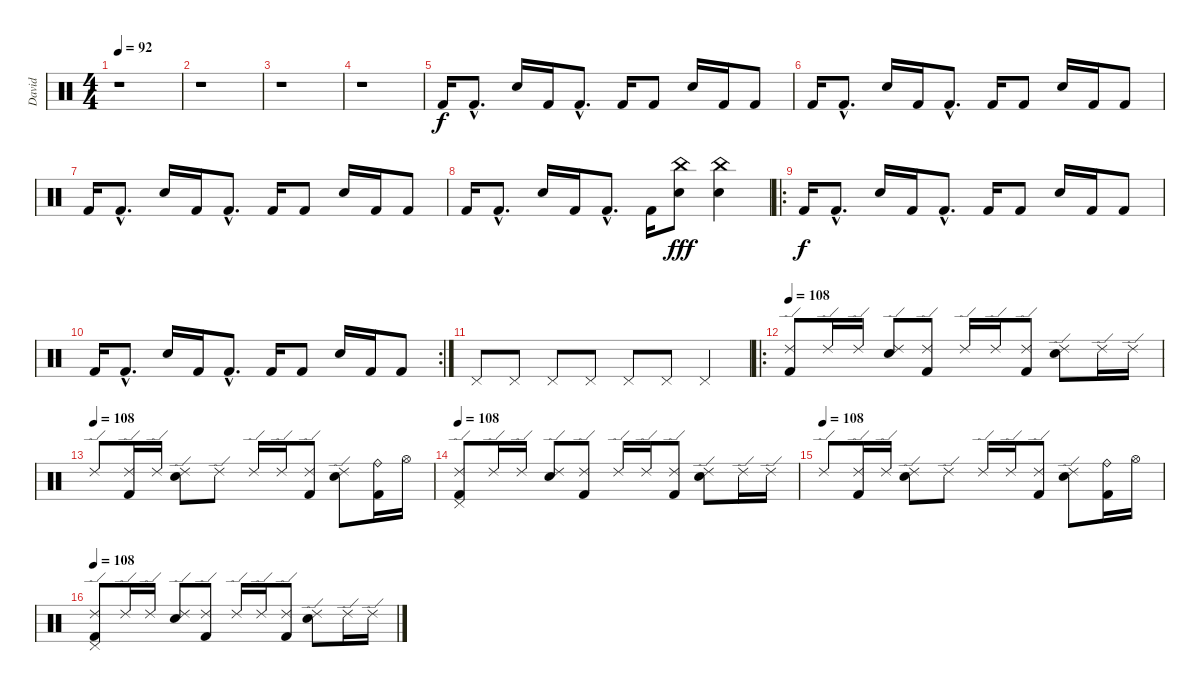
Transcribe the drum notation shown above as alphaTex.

\track ("David" "David") {instrument percussion}
\staff {score}
\articulation defaults
\ts (4 4)
\tempo 92
\clef neutral
\ks c
r.1{dy f} |
r.1 |
r.1 |
r.1 |
"Kick (hit) 2".16 "Kick (hit) 2"{hac}.8{d} "Snare (hit) 2".16 "Kick (hit) 2".16 "Kick (hit) 2"{hac}.8{d} "Kick (hit) 2".16 "Kick (hit) 2".8 "Snare (hit) 2".16 "Kick (hit) 2".16 "Kick (hit) 2".8 |
"Kick (hit) 2".16 "Kick (hit) 2"{hac}.8{d} "Snare (hit) 2".16 "Kick (hit) 2".16 "Kick (hit) 2"{hac}.8{d} "Kick (hit) 2".16 "Kick (hit) 2".8 "Snare (hit) 2".16 "Kick (hit) 2".16 "Kick (hit) 2".8 |
"Kick (hit) 2".16 "Kick (hit) 2"{hac}.8{d} "Snare (hit) 2".16 "Kick (hit) 2".16 "Kick (hit) 2"{hac}.8{d} "Kick (hit) 2".16 "Kick (hit) 2".8 "Snare (hit) 2".16 "Kick (hit) 2".16 "Kick (hit) 2".8 |
"Kick (hit) 2".16 "Kick (hit) 2"{hac}.8{d} "Snare (hit) 2".16 "Kick (hit) 2".16 "Kick (hit) 2"{hac}.8{d} "Kick (hit) 2".16 ("China (hit)" "Snare (hit) 2").8{dy fff} ("China (hit)" "Snare (hit) 2").4 |
\ro "Kick (hit) 2".16{dy f} "Kick (hit) 2"{hac}.8{d} "Snare (hit) 2".16 "Kick (hit) 2".16 "Kick (hit) 2"{hac}.8{d} "Kick (hit) 2".16 "Kick (hit) 2".8 "Snare (hit) 2".16 "Kick (hit) 2".16 "Kick (hit) 2".8
|
\rc 2 "Kick (hit) 2".16 "Kick (hit) 2"{hac}.8{d} "Snare (hit) 2".16 "Kick (hit) 2".16 "Kick (hit) 2"{hac}.8{d} "Kick (hit) 2".16 "Kick (hit) 2".8 "Snare (hit) 2".16 "Kick (hit) 2".16 "Kick (hit) 2".8
|
"Pedal Hi-Hat (hit)".8 "Pedal Hi-Hat (hit)".8 "Pedal Hi-Hat (hit)".8 "Pedal Hi-Hat (hit)".8 "Pedal Hi-Hat (hit)".8 "Pedal Hi-Hat (hit)".8 "Pedal Hi-Hat (hit)".4 |
\ro
\tempo 108
("Ride (edge) 2" "Kick (hit) 2").8 "Ride (edge) 2".16 "Ride (edge) 2".16 ("Ride (edge) 2" "Snare (hit) 2").8 ("Ride (edge) 2" "Kick (hit) 2").8 "Ride (edge) 2".16 "Ride (edge) 2".16 ("Ride (edge) 2" "Kick (hit) 2").8 ("Ride (edge) 2" "Snare (hit) 2").8 "Ride (edge) 2".16 "Ride (edge) 2".16 |
\tempo (108)
"Ride (edge) 2".8 ("Ride (edge) 2" "Kick (hit) 2").16 "Ride (edge) 2".16 ("Ride (edge) 2" "Snare (hit) 2").8 "Ride (edge) 2".8 "Ride (edge) 2".16 "Ride (edge) 2".16 ("Ride (edge) 2" "Kick (hit) 2").8 ("Ride (edge) 2" "Snare (hit) 2").8 ("Ride (bell)" "Kick (hit) 2").16 "Hi-Hat (open)".16 |
\tempo 108
("Ride (edge) 2" "Pedal Hi-Hat (hit)" "Kick (hit) 2").8 "Ride (edge) 2".16 "Ride (edge) 2".16 ("Ride (edge) 2" "Snare (hit) 2").8 ("Ride (edge) 2" "Kick (hit) 2").8 "Ride (edge) 2".16 "Ride (edge) 2".16 ("Ride (edge) 2" "Kick (hit) 2").8 ("Ride (edge) 2" "Snare (hit) 2").8 "Ride (edge) 2".16 "Ride (edge) 2".16 |
\tempo (108)
"Ride (edge) 2".8 ("Ride (edge) 2" "Kick (hit) 2").16 "Ride (edge) 2".16 ("Ride (edge) 2" "Snare (hit) 2").8 "Ride (edge) 2".8 "Ride (edge) 2".16 "Ride (edge) 2".16 ("Ride (edge) 2" "Kick (hit) 2").8 ("Ride (edge) 2" "Snare (hit) 2").8 ("Ride (bell)" "Kick (hit) 2").16 "Hi-Hat (open)".16 |
\tempo 108
("Ride (edge) 2" "Pedal Hi-Hat (hit)" "Kick (hit) 2").8 "Ride (edge) 2".16 "Ride (edge) 2".16 ("Ride (edge) 2" "Snare (hit) 2").8 ("Ride (edge) 2" "Kick (hit) 2").8 "Ride (edge) 2".16 "Ride (edge) 2".16 ("Ride (edge) 2" "Kick (hit) 2").8 ("Ride (edge) 2" "Snare (hit) 2").8 "Ride (edge) 2".16 "Ride (edge) 2".16
